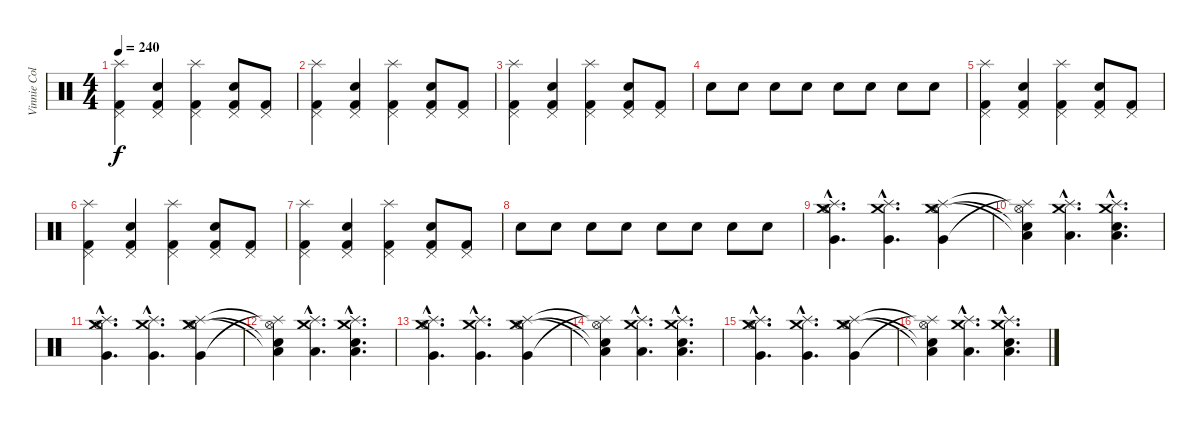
\track ("Vinnie Colaiuta" "Vinnie Col") {instrument percussion}
\staff {score}
\articulation defaults
\ts (4 4)
\tempo 240
\clef neutral
\ks c
("Splash (hit)" "Kick (hit) 2" "Pedal Hi-Hat (hit)").4{dy f} ("Snare (hit) 2" "Kick (hit) 2" "Pedal Hi-Hat (hit)").4 ("Splash (hit)" "Kick (hit) 2" "Pedal Hi-Hat (hit)").4 ("Snare (hit) 2" "Kick (hit) 2" "Pedal Hi-Hat (hit)").8 ("Kick (hit) 2" "Pedal Hi-Hat (hit)").8 |
("Splash (hit)" "Kick (hit) 2" "Pedal Hi-Hat (hit)").4 ("Snare (hit) 2" "Kick (hit) 2" "Pedal Hi-Hat (hit)").4 ("Splash (hit)" "Kick (hit) 2" "Pedal Hi-Hat (hit)").4 ("Snare (hit) 2" "Kick (hit) 2" "Pedal Hi-Hat (hit)").8 ("Kick (hit) 2" "Pedal Hi-Hat (hit)").8 |
("Splash (hit)" "Kick (hit) 2" "Pedal Hi-Hat (hit)").4 ("Snare (hit) 2" "Kick (hit) 2" "Pedal Hi-Hat (hit)").4 ("Splash (hit)" "Kick (hit) 2" "Pedal Hi-Hat (hit)").4 ("Snare (hit) 2" "Kick (hit) 2" "Pedal Hi-Hat (hit)").8 ("Kick (hit) 2" "Pedal Hi-Hat (hit)").8 |
"Snare (hit) 2".8 "Snare (hit) 2".8 "Snare (hit) 2".8 "Snare (hit) 2".8 "Snare (hit) 2".8 "Snare (hit) 2".8 "Snare (hit) 2".8 "Snare (hit) 2".8 |
("Splash (hit)" "Kick (hit) 2" "Pedal Hi-Hat (hit)").4 ("Snare (hit) 2" "Kick (hit) 2" "Pedal Hi-Hat (hit)").4 ("Splash (hit)" "Kick (hit) 2" "Pedal Hi-Hat (hit)").4 ("Snare (hit) 2" "Kick (hit) 2" "Pedal Hi-Hat (hit)").8 ("Kick (hit) 2" "Pedal Hi-Hat (hit)").8 |
("Splash (hit)" "Kick (hit) 2" "Pedal Hi-Hat (hit)").4 ("Snare (hit) 2" "Kick (hit) 2" "Pedal Hi-Hat (hit)").4 ("Splash (hit)" "Kick (hit) 2" "Pedal Hi-Hat (hit)").4 ("Snare (hit) 2" "Kick (hit) 2" "Pedal Hi-Hat (hit)").8 ("Kick (hit) 2" "Pedal Hi-Hat (hit)").8 |
("Splash (hit)" "Kick (hit) 2" "Pedal Hi-Hat (hit)").4 ("Snare (hit) 2" "Kick (hit) 2" "Pedal Hi-Hat (hit)").4 ("Splash (hit)" "Kick (hit) 2" "Pedal Hi-Hat (hit)").4 ("Snare (hit) 2" "Kick (hit) 2" "Pedal Hi-Hat (hit)").8 ("Kick (hit) 2" "Pedal Hi-Hat (hit)").8 |
"Snare (hit) 2".8 "Snare (hit) 2".8 "Snare (hit) 2".8 "Snare (hit) 2".8 "Snare (hit) 2".8 "Snare (hit) 2".8 "Snare (hit) 2".8 "Snare (hit) 2".8 |
("Crash medium (hit)"{hac} "Hi-Hat (open)"{hac} "Very Low Tom (hit)"{hac} "Splash (hit)"{hac}).4{d} ("Crash medium (hit)"{hac} "Very Low Tom (hit)"{hac} "Splash (hit)"{hac}).4{d} ("Crash medium (hit)" "Hi-Hat (open)" "Very Low Tom (hit)" "Splash (hit)").4 |
("Low Floor Tom (hit)"{t} "Snare (hit) 2"{t} "Splash (hit)"{t} "Hi-Hat (open)"{t}).4 ("Crash medium (hit)"{hac} "Low Floor Tom (hit)"{hac} "Splash (hit)"{hac}).4{d} ("Crash medium (hit)"{hac} "Low Floor Tom (hit)"{hac} "Snare (hit) 2"{hac} "Splash (hit)"{hac}).4{d} |
("Crash medium (hit)"{hac} "Hi-Hat (open)"{hac} "Very Low Tom (hit)"{hac} "Splash (hit)"{hac}).4{d} ("Crash medium (hit)"{hac} "Very Low Tom (hit)"{hac} "Splash (hit)"{hac}).4{d} ("Crash medium (hit)" "Hi-Hat (open)" "Very Low Tom (hit)" "Splash (hit)").4 |
("Low Floor Tom (hit)"{t} "Snare (hit) 2"{t} "Splash (hit)"{t} "Hi-Hat (open)"{t}).4 ("Crash medium (hit)"{hac} "Low Floor Tom (hit)"{hac} "Splash (hit)"{hac}).4{d} ("Crash medium (hit)"{hac} "Low Floor Tom (hit)"{hac} "Snare (hit) 2"{hac} "Splash (hit)"{hac}).4{d} |
("Crash medium (hit)"{hac} "Hi-Hat (open)"{hac} "Very Low Tom (hit)"{hac} "Splash (hit)"{hac}).4{d} ("Crash medium (hit)"{hac} "Very Low Tom (hit)"{hac} "Splash (hit)"{hac}).4{d} ("Crash medium (hit)" "Hi-Hat (open)" "Very Low Tom (hit)" "Splash (hit)").4 |
("Low Floor Tom (hit)"{t} "Snare (hit) 2"{t} "Splash (hit)"{t} "Hi-Hat (open)"{t}).4 ("Crash medium (hit)"{hac} "Low Floor Tom (hit)"{hac} "Splash (hit)"{hac}).4{d} ("Crash medium (hit)"{hac} "Low Floor Tom (hit)"{hac} "Snare (hit) 2"{hac} "Splash (hit)"{hac}).4{d} |
("Crash medium (hit)"{hac} "Hi-Hat (open)"{hac} "Very Low Tom (hit)"{hac} "Splash (hit)"{hac}).4{d} ("Crash medium (hit)"{hac} "Very Low Tom (hit)"{hac} "Splash (hit)"{hac}).4{d} ("Crash medium (hit)" "Hi-Hat (open)" "Very Low Tom (hit)" "Splash (hit)").4 |
("Low Floor Tom (hit)"{t} "Snare (hit) 2"{t} "Splash (hit)"{t} "Hi-Hat (open)"{t}).4 ("Crash medium (hit)"{hac} "Low Floor Tom (hit)"{hac} "Splash (hit)"{hac}).4{d} ("Crash medium (hit)"{hac} "Low Floor Tom (hit)"{hac} "Snare (hit) 2"{hac} "Splash (hit)"{hac}).4{d}
